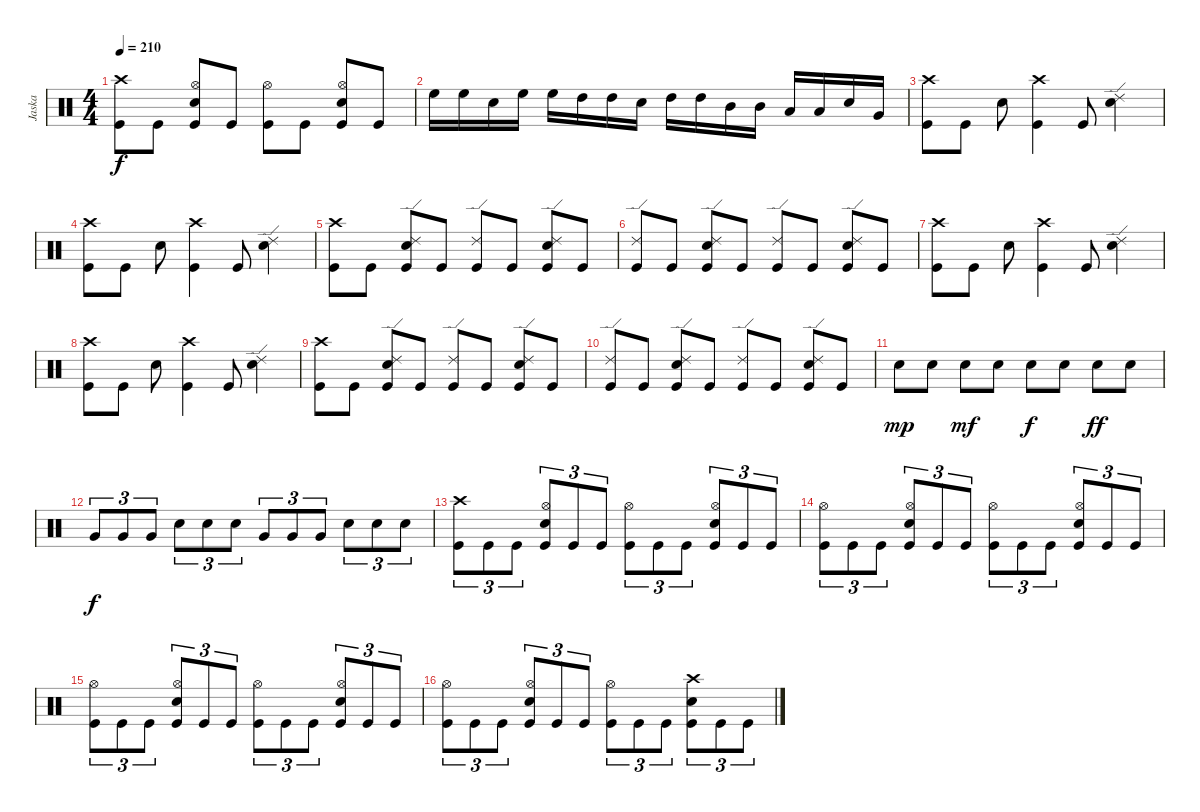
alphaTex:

\track ("Jaska" "Jaska") {instrument percussion}
\staff {score}
\articulation defaults
\ts (4 4)
\tempo 210
\clef neutral
\ks c
("Crash high (hit)" "Kick (hit)").8{dy f} "Kick (hit)".8 ("Hi-Hat (open)" "Electric Snare (hit)" "Kick (hit)").8 "Kick (hit)".8 ("Hi-Hat (open)" "Kick (hit)").8 "Kick (hit)".8 ("Hi-Hat (open)" "Electric Snare (hit)" "Kick (hit)").8 "Kick (hit)".8 |
"High Floor Tom (hit)".16 "High Floor Tom (hit)".16 "Electric Snare (hit)".16 "High Floor Tom (hit)".16 "High Floor Tom (hit)".16 "High Tom (hit)".16 "High Tom (hit)".16 "Electric Snare (hit)".16 "High Tom (hit)".16 "High Tom (hit)".16 "Mid Tom (hit)".16 "Mid Tom (hit)".16 "Low Tom (hit)".16 "Low Tom (hit)".16 "Electric Snare (hit)".16 "Very Low Tom (hit)".16 |
("Crash high (hit)" "Kick (hit)").8 "Kick (hit)".8 "Electric Snare (hit)".8 ("Crash high (hit)" "Kick (hit)").4 "Kick (hit)".8 ("Ride (edge) 2" "Electric Snare (hit)").4 |
("Crash high (hit)" "Kick (hit)").8 "Kick (hit)".8 "Electric Snare (hit)".8 ("Crash high (hit)" "Kick (hit)").4 "Kick (hit)".8 ("Ride (edge) 2" "Electric Snare (hit)").4 |
("Crash high (hit)" "Kick (hit)").8 "Kick (hit)".8 ("Ride (edge) 2" "Electric Snare (hit)" "Kick (hit)").8 "Kick (hit)".8 ("Ride (edge) 2" "Kick (hit)").8 "Kick (hit)".8 ("Ride (edge) 2" "Electric Snare (hit)" "Kick (hit)").8 "Kick (hit)".8 |
("Ride (edge) 2" "Kick (hit)").8 "Kick (hit)".8 ("Ride (edge) 2" "Electric Snare (hit)" "Kick (hit)").8 "Kick (hit)".8 ("Ride (edge) 2" "Kick (hit)").8 "Kick (hit)".8 ("Ride (edge) 2" "Electric Snare (hit)" "Kick (hit)").8 "Kick (hit)".8 |
("Crash high (hit)" "Kick (hit)").8 "Kick (hit)".8 "Electric Snare (hit)".8 ("Crash high (hit)" "Kick (hit)").4 "Kick (hit)".8 ("Ride (edge) 2" "Electric Snare (hit)").4 |
("Crash high (hit)" "Kick (hit)").8 "Kick (hit)".8 "Electric Snare (hit)".8 ("Crash high (hit)" "Kick (hit)").4 "Kick (hit)".8 ("Ride (edge) 2" "Electric Snare (hit)").4 |
("Crash high (hit)" "Kick (hit)").8 "Kick (hit)".8 ("Ride (edge) 2" "Electric Snare (hit)" "Kick (hit)").8 "Kick (hit)".8 ("Ride (edge) 2" "Kick (hit)").8 "Kick (hit)".8 ("Ride (edge) 2" "Electric Snare (hit)" "Kick (hit)").8 "Kick (hit)".8 |
("Ride (edge) 2" "Kick (hit)").8 "Kick (hit)".8 ("Ride (edge) 2" "Electric Snare (hit)" "Kick (hit)").8 "Kick (hit)".8 ("Ride (edge) 2" "Kick (hit)").8 "Kick (hit)".8 ("Ride (edge) 2" "Electric Snare (hit)" "Kick (hit)").8 "Kick (hit)".8 |
"Electric Snare (hit)".8{dy mp} "Electric Snare (hit)".8 "Electric Snare (hit)".8{dy mf} "Electric Snare (hit)".8 "Electric Snare (hit)".8{dy f} "Electric Snare (hit)".8 "Electric Snare (hit)".8{dy ff} "Electric Snare (hit)".8 |
"Very Low Tom (hit)".8{tu (3 2) dy f} "Very Low Tom (hit)".8{tu (3 2)} "Very Low Tom (hit)".8{tu (3 2)} "Electric Snare (hit)".8{tu (3 2)} "Electric Snare (hit)".8{tu (3 2)} "Electric Snare (hit)".8{tu (3 2)} "Very Low Tom (hit)".8{tu (3 2)} "Very Low Tom (hit)".8{tu (3 2)} "Very Low Tom (hit)".8{tu (3 2)} "Electric Snare (hit)".8{tu (3 2)} "Electric Snare (hit)".8{tu (3 2)} "Electric Snare (hit)".8{tu (3 2)} |
("Crash high (hit)" "Kick (hit)").8{tu (3 2)} "Kick (hit)".8{tu (3 2)} "Kick (hit)".8{tu (3 2)} ("Hi-Hat (open)" "Electric Snare (hit)" "Kick (hit)").8{tu (3 2)} "Kick (hit)".8{tu (3 2)} "Kick (hit)".8{tu (3 2)} ("Hi-Hat (open)" "Kick (hit)").8{tu (3 2)} "Kick (hit)".8{tu (3 2)} "Kick (hit)".8{tu (3 2)} ("Hi-Hat (open)" "Electric Snare (hit)" "Kick (hit)").8{tu (3 2)} "Kick (hit)".8{tu (3 2)} "Kick (hit)".8{tu (3 2)} |
("Hi-Hat (open)" "Kick (hit)").8{tu (3 2)} "Kick (hit)".8{tu (3 2)} "Kick (hit)".8{tu (3 2)} ("Hi-Hat (open)" "Electric Snare (hit)" "Kick (hit)").8{tu (3 2)} "Kick (hit)".8{tu (3 2)} "Kick (hit)".8{tu (3 2)} ("Hi-Hat (open)" "Kick (hit)").8{tu (3 2)} "Kick (hit)".8{tu (3 2)} "Kick (hit)".8{tu (3 2)} ("Hi-Hat (open)" "Electric Snare (hit)" "Kick (hit)").8{tu (3 2)} "Kick (hit)".8{tu (3 2)} "Kick (hit)".8{tu (3 2)} |
("Hi-Hat (open)" "Kick (hit)").8{tu (3 2)} "Kick (hit)".8{tu (3 2)} "Kick (hit)".8{tu (3 2)} ("Hi-Hat (open)" "Electric Snare (hit)" "Kick (hit)").8{tu (3 2)} "Kick (hit)".8{tu (3 2)} "Kick (hit)".8{tu (3 2)} ("Hi-Hat (open)" "Kick (hit)").8{tu (3 2)} "Kick (hit)".8{tu (3 2)} "Kick (hit)".8{tu (3 2)} ("Hi-Hat (open)" "Electric Snare (hit)" "Kick (hit)").8{tu (3 2)} "Kick (hit)".8{tu (3 2)} "Kick (hit)".8{tu (3 2)} |
("Hi-Hat (open)" "Kick (hit)").8{tu (3 2)} "Kick (hit)".8{tu (3 2)} "Kick (hit)".8{tu (3 2)} ("Hi-Hat (open)" "Electric Snare (hit)" "Kick (hit)").8{tu (3 2)} "Kick (hit)".8{tu (3 2)} "Kick (hit)".8{tu (3 2)} ("Hi-Hat (open)" "Kick (hit)").8{tu (3 2)} "Kick (hit)".8{tu (3 2)} "Kick (hit)".8{tu (3 2)} ("Crash high (hit)" "Electric Snare (hit)" "Kick (hit)").8{tu (3 2)} "Kick (hit)".8{tu (3 2)} "Kick (hit)".8{tu (3 2)}
